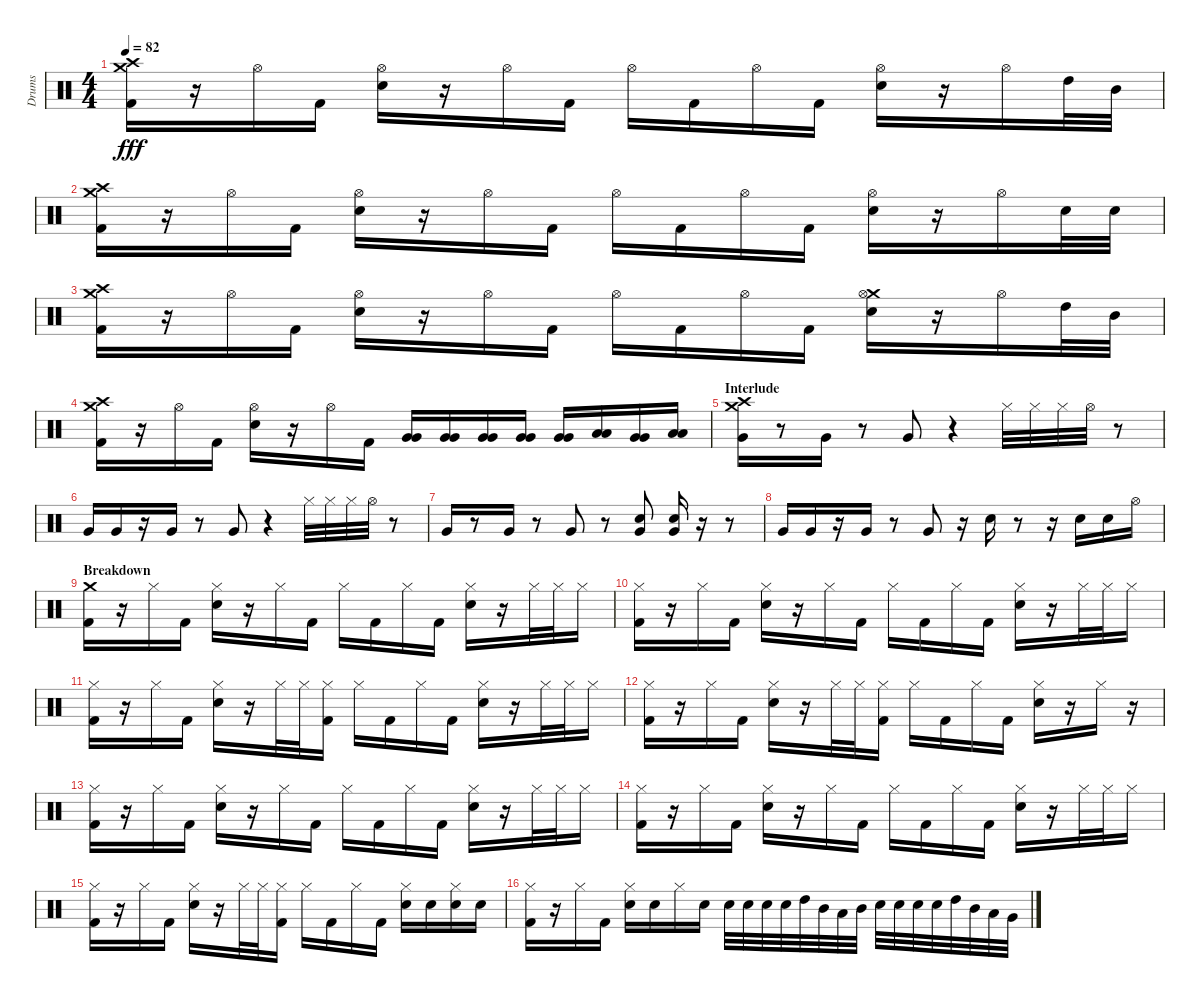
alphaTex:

\track ("Drums" "Drums") {instrument percussion}
\staff {score}
\articulation defaults
\ts (4 4)
\tempo 82
\clef neutral
\ks c
("Crash high (hit)" "Crash medium (hit)" "Kick (hit) 2").16{dy fff} r.16 "Hi-Hat (open)".16 "Kick (hit) 2".16 ("Hi-Hat (open)" "Electric Snare (hit)").16 r.16 "Hi-Hat (open)".16 "Kick (hit) 2".16 "Hi-Hat (open)".16 "Kick (hit) 2".16 "Hi-Hat (open)".16 "Kick (hit) 2".16 ("Hi-Hat (open)" "Electric Snare (hit)").16 r.16 "Hi-Hat (open)".16 "High Tom (hit)".32 "Mid Tom (hit)".32 |
("Crash high (hit)" "Crash medium (hit)" "Kick (hit) 2").16 r.16 "Hi-Hat (open)".16 "Kick (hit) 2".16 ("Hi-Hat (open)" "Electric Snare (hit)").16 r.16 "Hi-Hat (open)".16 "Kick (hit) 2".16 "Hi-Hat (open)".16 "Kick (hit) 2".16 "Hi-Hat (open)".16 "Kick (hit) 2".16 ("Hi-Hat (open)" "Electric Snare (hit)").16 r.16 "Hi-Hat (open)".16 "Electric Snare (hit)".32 "Electric Snare (hit)".32 |
("Crash high (hit)" "Crash medium (hit)" "Kick (hit) 2").16 r.16 "Hi-Hat (open)".16 "Kick (hit) 2".16 ("Hi-Hat (open)" "Electric Snare (hit)").16 r.16 "Hi-Hat (open)".16 "Kick (hit) 2".16 "Hi-Hat (open)".16 "Kick (hit) 2".16 "Hi-Hat (open)".16 "Kick (hit) 2".16 ("Crash medium (hit)" "Hi-Hat (open)" "Electric Snare (hit)").16 r.16 "Hi-Hat (open)".16 "High Tom (hit)".32 "Mid Tom (hit)".32 |
("Crash high (hit)" "Crash medium (hit)" "Kick (hit) 2").16 r.16 "Hi-Hat (open)".16 "Kick (hit) 2".16 ("Hi-Hat (open)" "Electric Snare (hit)").16 r.16 "Hi-Hat (open)".16 "Kick (hit) 2".16 ("Very Low Tom (hit)" "Very Low Tom (hit)").16 ("Very Low Tom (hit)" "Very Low Tom (hit)").16 ("Very Low Tom (hit)" "Very Low Tom (hit)").16 ("Very Low Tom (hit)" "Very Low Tom (hit)").16 ("Very Low Tom (hit)" "Very Low Tom (hit)").16 ("Low Tom (hit)" "Low Tom (hit)").16 ("Very Low Tom (hit)" "Very Low Tom (hit)").16 ("Low Floor Tom (hit)" "Low Floor Tom (hit)").16 |
\section ("" "Interlude")
("Crash high (hit)" "Crash medium (hit)" "Very Low Tom (hit)").16 r.8 "Very Low Tom (hit)".16 r.8 "Very Low Tom (hit)".8 r.4 "Hi-Hat (closed)".32 "Hi-Hat (closed)".32 "Hi-Hat (closed)".32 "Hi-Hat (open)".32 r.8 |
"Very Low Tom (hit)".16 "Very Low Tom (hit)".16 r.16 "Very Low Tom (hit)".16 r.8 "Very Low Tom (hit)".8 r.4 "Hi-Hat (closed)".32 "Hi-Hat (closed)".32 "Hi-Hat (closed)".32 "Hi-Hat (open)".32 r.8 |
"Very Low Tom (hit)".16 r.8 "Very Low Tom (hit)".16 r.8 "Very Low Tom (hit)".8 r.8 ("Very Low Tom (hit)" "Electric Snare (hit)").8 ("Very Low Tom (hit)" "Electric Snare (hit)").16 r.16 r.8 |
"Very Low Tom (hit)".16 "Very Low Tom (hit)".16 r.16 "Very Low Tom (hit)".16 r.8 "Very Low Tom (hit)".8 r.16 "Electric Snare (hit)".16 r.8 r.16 "Electric Snare (hit)".16 "Electric Snare (hit)".16 "Hi-Hat (open)".16 |
\section ("" "Breakdown")
("Crash medium (hit)" "Kick (hit) 2").16 r.16 "Hi-Hat (closed)".16 "Kick (hit) 2".16 ("Hi-Hat (closed)" "Electric Snare (hit)").16 r.16 "Hi-Hat (closed)".16 "Kick (hit) 2".16 "Hi-Hat (closed)".16 "Kick (hit) 2".16 "Hi-Hat (closed)".16 "Kick (hit) 2".16 ("Hi-Hat (closed)" "Electric Snare (hit)").16 r.16 "Hi-Hat (closed)".32 "Hi-Hat (closed)".32 "Hi-Hat (closed)".16 |
("Hi-Hat (closed)" "Kick (hit) 2").16 r.16 "Hi-Hat (closed)".16 "Kick (hit) 2".16 ("Hi-Hat (closed)" "Electric Snare (hit)").16 r.16 "Hi-Hat (closed)".16 "Kick (hit) 2".16 "Hi-Hat (closed)".16 "Kick (hit) 2".16 "Hi-Hat (closed)".16 "Kick (hit) 2".16 ("Hi-Hat (closed)" "Electric Snare (hit)").16 r.16 "Hi-Hat (closed)".32 "Hi-Hat (closed)".32 "Hi-Hat (closed)".16 |
("Hi-Hat (closed)" "Kick (hit) 2").16 r.16 "Hi-Hat (closed)".16 "Kick (hit) 2".16 ("Hi-Hat (closed)" "Electric Snare (hit)").16 r.16 "Hi-Hat (closed)".32 "Hi-Hat (closed)".32 ("Hi-Hat (closed)" "Kick (hit) 2").16 "Hi-Hat (closed)".16 "Kick (hit) 2".16 "Hi-Hat (closed)".16 "Kick (hit) 2".16 ("Hi-Hat (closed)" "Electric Snare (hit)").16 r.16 "Hi-Hat (closed)".32 "Hi-Hat (closed)".32 "Hi-Hat (closed)".16 |
("Hi-Hat (closed)" "Kick (hit) 2").16 r.16 "Hi-Hat (closed)".16 "Kick (hit) 2".16 ("Hi-Hat (closed)" "Electric Snare (hit)").16 r.16 "Hi-Hat (closed)".32 "Hi-Hat (closed)".32 ("Hi-Hat (closed)" "Kick (hit) 2").16 "Hi-Hat (closed)".16 "Kick (hit) 2".16 "Hi-Hat (closed)".16 "Kick (hit) 2".16 ("Hi-Hat (closed)" "Electric Snare (hit)").16 r.16 "Hi-Hat (closed)".16 r.16 |
("Hi-Hat (closed)" "Kick (hit) 2").16 r.16 "Hi-Hat (closed)".16 "Kick (hit) 2".16 ("Hi-Hat (closed)" "Electric Snare (hit)").16 r.16 "Hi-Hat (closed)".16 "Kick (hit) 2".16 "Hi-Hat (closed)".16 "Kick (hit) 2".16 "Hi-Hat (closed)".16 "Kick (hit) 2".16 ("Hi-Hat (closed)" "Electric Snare (hit)").16 r.16 "Hi-Hat (closed)".32 "Hi-Hat (closed)".32 "Hi-Hat (closed)".16 |
("Hi-Hat (closed)" "Kick (hit) 2").16 r.16 "Hi-Hat (closed)".16 "Kick (hit) 2".16 ("Hi-Hat (closed)" "Electric Snare (hit)").16 r.16 "Hi-Hat (closed)".16 "Kick (hit) 2".16 "Hi-Hat (closed)".16 "Kick (hit) 2".16 "Hi-Hat (closed)".16 "Kick (hit) 2".16 ("Hi-Hat (closed)" "Electric Snare (hit)").16 r.16 "Hi-Hat (closed)".32 "Hi-Hat (closed)".32 "Hi-Hat (closed)".16 |
("Hi-Hat (closed)" "Kick (hit) 2").16 r.16 "Hi-Hat (closed)".16 "Kick (hit) 2".16 ("Hi-Hat (closed)" "Electric Snare (hit)").16 r.16 "Hi-Hat (closed)".32 "Hi-Hat (closed)".32 ("Hi-Hat (closed)" "Kick (hit) 2").16 "Hi-Hat (closed)".16 "Kick (hit) 2".16 "Hi-Hat (closed)".16 "Kick (hit) 2".16 ("Hi-Hat (closed)" "Electric Snare (hit)").16 "Electric Snare (hit)".16 ("Hi-Hat (closed)" "Electric Snare (hit)").16 "Electric Snare (hit)".16 |
("Hi-Hat (closed)" "Kick (hit) 2").16 r.16 "Hi-Hat (closed)".16 "Kick (hit) 2".16 ("Hi-Hat (closed)" "Electric Snare (hit)").16 "Electric Snare (hit)".16 "Hi-Hat (closed)".16 "Electric Snare (hit)".16 "Electric Snare (hit)".32 "Electric Snare (hit)".32 "Electric Snare (hit)".32 "Electric Snare (hit)".32 "High Tom (hit)".32 "Mid Tom (hit)".32 "Low Tom (hit)".32 "Mid Tom (hit)".32 "Electric Snare (hit)".32 "Electric Snare (hit)".32 "Electric Snare (hit)".32 "Electric Snare (hit)".32 "High Tom (hit)".32 "Mid Tom (hit)".32 "Low Tom (hit)".32 "Very Low Tom (hit)".32
